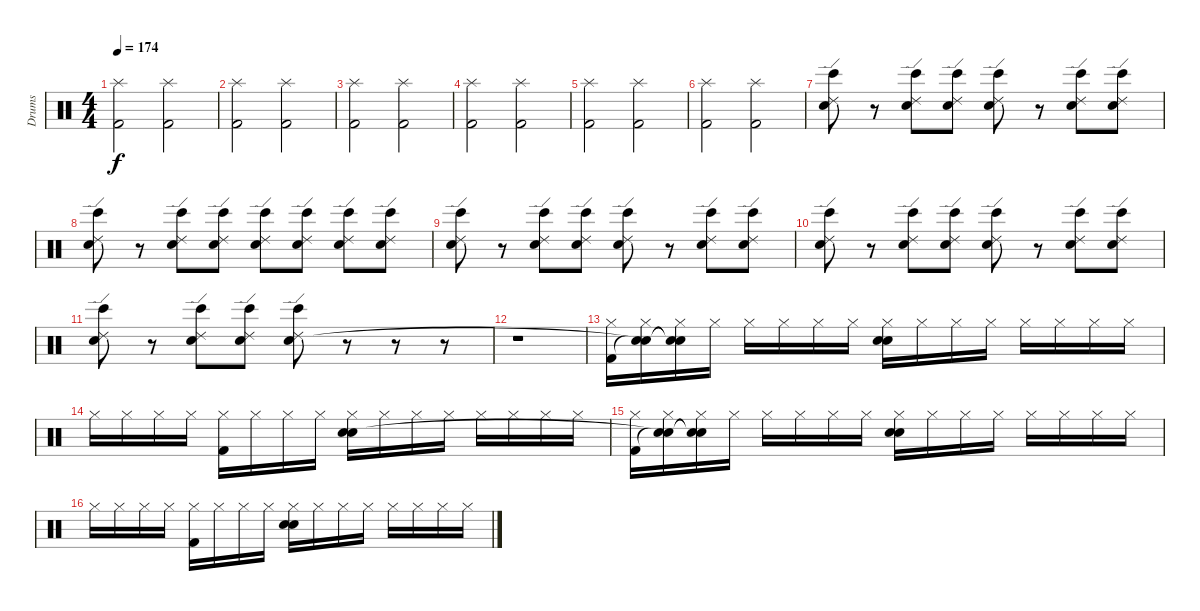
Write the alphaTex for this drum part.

\track ("Drums" "Drums") {instrument percussion}
\staff {score}
\articulation defaults
\ts (4 4)
\tempo 174
\clef neutral
\ks c
("Kick (hit) 2" "Splash (hit)").2{dy f} ("Kick (hit) 2" "Splash (hit)").2 |
("Kick (hit) 2" "Splash (hit)").2 ("Kick (hit) 2" "Splash (hit)").2 |
("Kick (hit) 2" "Splash (hit)").2 ("Kick (hit) 2" "Splash (hit)").2 |
("Kick (hit) 2" "Splash (hit)").2 ("Kick (hit) 2" "Splash (hit)").2 |
("Kick (hit) 2" "Splash (hit)").2 ("Kick (hit) 2" "Splash (hit)").2 |
("Kick (hit) 2" "Splash (hit)").2 ("Kick (hit) 2" "Splash (hit)").2 |
("Ride (edge) 2" "Bongo High (hit)" "Electric Snare (hit)").8 r.8 ("Ride (edge) 2" "Bongo High (hit)" "Electric Snare (hit)").8 ("Ride (edge) 2" "Bongo High (hit)" "Electric Snare (hit)").8 ("Ride (edge) 2" "Bongo High (hit)" "Electric Snare (hit)").8 r.8 ("Ride (edge) 2" "Bongo High (hit)" "Electric Snare (hit)").8 ("Ride (edge) 2" "Bongo High (hit)" "Electric Snare (hit)").8 |
("Ride (edge) 2" "Bongo High (hit)" "Electric Snare (hit)").8 r.8 ("Ride (edge) 2" "Bongo High (hit)" "Electric Snare (hit)").8 ("Ride (edge) 2" "Bongo High (hit)" "Electric Snare (hit)").8 ("Ride (edge) 2" "Bongo High (hit)" "Electric Snare (hit)").8 ("Ride (edge) 2" "Bongo High (hit)" "Electric Snare (hit)").8 ("Ride (edge) 2" "Bongo High (hit)" "Electric Snare (hit)").8 ("Ride (edge) 2" "Bongo High (hit)" "Electric Snare (hit)").8 |
("Ride (edge) 2" "Bongo High (hit)" "Electric Snare (hit)").8 r.8 ("Ride (edge) 2" "Bongo High (hit)" "Electric Snare (hit)").8 ("Ride (edge) 2" "Bongo High (hit)" "Electric Snare (hit)").8 ("Ride (edge) 2" "Bongo High (hit)" "Electric Snare (hit)").8 r.8 ("Ride (edge) 2" "Bongo High (hit)" "Electric Snare (hit)").8 ("Ride (edge) 2" "Bongo High (hit)" "Electric Snare (hit)").8 |
("Ride (edge) 2" "Bongo High (hit)" "Electric Snare (hit)").8 r.8 ("Ride (edge) 2" "Bongo High (hit)" "Electric Snare (hit)").8 ("Ride (edge) 2" "Bongo High (hit)" "Electric Snare (hit)").8 ("Ride (edge) 2" "Bongo High (hit)" "Electric Snare (hit)").8 r.8 ("Ride (edge) 2" "Bongo High (hit)" "Electric Snare (hit)").8{volume 6} ("Ride (edge) 2" "Bongo High (hit)" "Electric Snare (hit)").8 |
("Ride (edge) 2" "Bongo High (hit)" "Electric Snare (hit)").8 r.8 ("Ride (edge) 2" "Bongo High (hit)" "Electric Snare (hit)").8 ("Ride (edge) 2" "Bongo High (hit)" "Electric Snare (hit)").8 ("Ride (edge) 2" "Bongo High (hit)" "Electric Snare (hit)").8 r.8 r.8 r.8 |
r.1{volume 16} |
("Hi-Hat (closed)" "Kick (hit) 2").16 ("Hi-Hat (closed)" "Snare (hit)"{t} "Snare (hit)"{t}).16 ("Hi-Hat (closed)" "Snare (hit)"{t} "Snare (hit)"{t}).16 "Hi-Hat (closed)".16 "Hi-Hat (closed)".16 "Hi-Hat (closed)".16 "Hi-Hat (closed)".16 "Hi-Hat (closed)".16 ("Hi-Hat (closed)" "Electric Snare (hit)" "Snare (hit) 2").16 "Hi-Hat (closed)".16 "Hi-Hat (closed)".16 "Hi-Hat (closed)".16 "Hi-Hat (closed)".16 "Hi-Hat (closed)".16 "Hi-Hat (closed)".16 "Hi-Hat (closed)".16 |
"Hi-Hat (closed)".16 "Hi-Hat (closed)".16 "Hi-Hat (closed)".16 "Hi-Hat (closed)".16 ("Hi-Hat (closed)" "Kick (hit) 2").16 "Hi-Hat (closed)".16 "Hi-Hat (closed)".16 "Hi-Hat (closed)".16 ("Hi-Hat (closed)" "Electric Snare (hit)" "Snare (hit) 2").16 "Hi-Hat (closed)".16 "Hi-Hat (closed)".16 "Hi-Hat (closed)".16 "Hi-Hat (closed)".16 "Hi-Hat (closed)".16 "Hi-Hat (closed)".16 "Hi-Hat (closed)".16 |
("Hi-Hat (closed)" "Kick (hit) 2").16 ("Hi-Hat (closed)" "Snare (hit)"{t} "Snare (hit)"{t}).16 ("Hi-Hat (closed)" "Snare (hit)"{t} "Snare (hit)"{t}).16 "Hi-Hat (closed)".16 "Hi-Hat (closed)".16 "Hi-Hat (closed)".16 "Hi-Hat (closed)".16 "Hi-Hat (closed)".16 ("Hi-Hat (closed)" "Electric Snare (hit)" "Snare (hit) 2").16 "Hi-Hat (closed)".16 "Hi-Hat (closed)".16 "Hi-Hat (closed)".16 "Hi-Hat (closed)".16 "Hi-Hat (closed)".16 "Hi-Hat (closed)".16 "Hi-Hat (closed)".16 |
"Hi-Hat (closed)".16 "Hi-Hat (closed)".16 "Hi-Hat (closed)".16 "Hi-Hat (closed)".16 ("Hi-Hat (closed)" "Kick (hit) 2").16 "Hi-Hat (closed)".16 "Hi-Hat (closed)".16 "Hi-Hat (closed)".16 ("Hi-Hat (closed)" "Electric Snare (hit)" "Snare (hit) 2").16 "Hi-Hat (closed)".16 "Hi-Hat (closed)".16 "Hi-Hat (closed)".16 "Hi-Hat (closed)".16 "Hi-Hat (closed)".16 "Hi-Hat (closed)".16 "Hi-Hat (closed)".16
